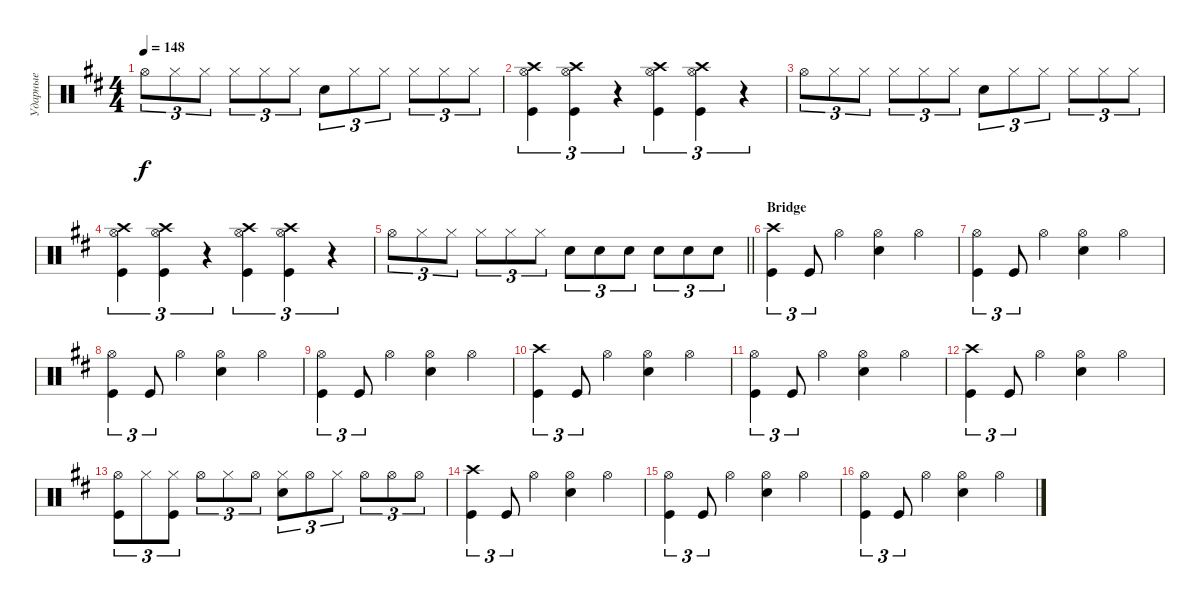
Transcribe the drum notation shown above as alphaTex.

\track ("Ударные" "Ударные") {instrument percussion}
\staff {score}
\articulation defaults
\ts (4 4)
\tempo 148
\clef neutral
\ks bminor "Hi-Hat (open)".8{tu (3 2) dy f} "Hi-Hat (closed)".8{tu (3 2)} "Hi-Hat (closed)".8{tu (3 2)} "Hi-Hat (closed)".8{tu (3 2)} "Hi-Hat (closed)".8{tu (3 2)} "Hi-Hat (closed)".8{tu (3 2)} "Snare (hit) 2".8{tu (3 2)} "Hi-Hat (closed)".8{tu (3 2)} "Hi-Hat (closed)".8{tu (3 2)} "Hi-Hat (closed)".8{tu (3 2)} "Hi-Hat (closed)".8{tu (3 2)} "Hi-Hat (closed)".8{tu (3 2)}
|
("Kick (hit)" "Crash high (hit)" "Hi-Hat (open)").4{tu (3 2)} ("Kick (hit)" "Crash high (hit)" "Hi-Hat (open)").4{tu (3 2)} r.4{tu (3 2)} ("Kick (hit)" "Crash high (hit)" "Hi-Hat (open)").4{tu (3 2)} ("Kick (hit)" "Crash high (hit)" "Hi-Hat (open)").4{tu (3 2)} r.4{tu (3 2)} |
"Hi-Hat (open)".8{tu (3 2)} "Hi-Hat (closed)".8{tu (3 2)} "Hi-Hat (closed)".8{tu (3 2)} "Hi-Hat (closed)".8{tu (3 2)} "Hi-Hat (closed)".8{tu (3 2)} "Hi-Hat (closed)".8{tu (3 2)} "Snare (hit) 2".8{tu (3 2)} "Hi-Hat (closed)".8{tu (3 2)} "Hi-Hat (closed)".8{tu (3 2)} "Hi-Hat (closed)".8{tu (3 2)} "Hi-Hat (closed)".8{tu (3 2)} "Hi-Hat (closed)".8{tu (3 2)} |
("Kick (hit)" "Crash high (hit)" "Hi-Hat (open)").4{tu (3 2)} ("Kick (hit)" "Crash high (hit)" "Hi-Hat (open)").4{tu (3 2)} r.4{tu (3 2)} ("Kick (hit)" "Crash high (hit)" "Hi-Hat (open)").4{tu (3 2)} ("Kick (hit)" "Crash high (hit)" "Hi-Hat (open)").4{tu (3 2)} r.4{tu (3 2)} |
\barLineRight lightlight "Hi-Hat (open)".8{tu (3 2)} "Hi-Hat (closed)".8{tu (3 2)} "Hi-Hat (closed)".8{tu (3 2)} "Hi-Hat (closed)".8{tu (3 2)} "Hi-Hat (closed)".8{tu (3 2)} "Hi-Hat (closed)".8{tu (3 2)} "Snare (hit) 2".8{tu (3 2)} "Snare (hit) 2".8{tu (3 2)} "Snare (hit) 2".8{tu (3 2)} "Snare (hit) 2".8{tu (3 2)} "Snare (hit) 2".8{tu (3 2)} "Snare (hit) 2".8{tu (3 2)}
|
\section ("" "Bridge")
("Kick (hit)" "Crash high (hit)").4{tu (3 2)} "Kick (hit)".8{tu (3 2)} "Hi-Hat (open)".4 ("Hi-Hat (open)" "Snare (hit) 2").4 "Hi-Hat (open)".4 |
("Hi-Hat (open)" "Kick (hit)").4{tu (3 2)} "Kick (hit)".8{tu (3 2)} "Hi-Hat (open)".4 ("Hi-Hat (open)" "Snare (hit) 2").4 "Hi-Hat (open)".4 |
("Hi-Hat (open)" "Kick (hit)").4{tu (3 2)} "Kick (hit)".8{tu (3 2)} "Hi-Hat (open)".4 ("Hi-Hat (open)" "Snare (hit) 2").4 "Hi-Hat (open)".4 |
("Hi-Hat (open)" "Kick (hit)").4{tu (3 2)} "Kick (hit)".8{tu (3 2)} "Hi-Hat (open)".4 ("Hi-Hat (open)" "Snare (hit) 2").4 "Hi-Hat (open)".4 |
("Kick (hit)" "Crash high (hit)").4{tu (3 2)} "Kick (hit)".8{tu (3 2)} "Hi-Hat (open)".4 ("Hi-Hat (open)" "Snare (hit) 2").4 "Hi-Hat (open)".4 |
("Hi-Hat (open)" "Kick (hit)").4{tu (3 2)} "Kick (hit)".8{tu (3 2)} "Hi-Hat (open)".4 ("Hi-Hat (open)" "Snare (hit) 2").4 "Hi-Hat (open)".4 |
("Kick (hit)" "Crash high (hit)").4{tu (3 2)} "Kick (hit)".8{tu (3 2)} "Hi-Hat (open)".4 ("Hi-Hat (open)" "Snare (hit) 2").4 "Hi-Hat (open)".4 |
("Hi-Hat (open)" "Kick (hit)").8{tu (3 2)} "Hi-Hat (closed)".8{tu (3 2)} ("Kick (hit)" "Hi-Hat (closed)").8{tu (3 2)} "Hi-Hat (open)".8{tu (3 2)} "Hi-Hat (closed)".8{tu (3 2)} "Hi-Hat (open)".8{tu (3 2)} ("Hi-Hat (closed)" "Snare (hit) 2").8{tu (3 2)} "Hi-Hat (open)".8{tu (3 2)} "Hi-Hat (closed)".8{tu (3 2)} "Hi-Hat (open)".8{tu (3 2)} "Hi-Hat (open)".8{tu (3 2)} "Hi-Hat (open)".8{tu (3 2)} |
("Kick (hit)" "Crash high (hit)").4{tu (3 2)} "Kick (hit)".8{tu (3 2)} "Hi-Hat (open)".4 ("Hi-Hat (open)" "Snare (hit) 2").4 "Hi-Hat (open)".4 |
("Hi-Hat (open)" "Kick (hit)").4{tu (3 2)} "Kick (hit)".8{tu (3 2)} "Hi-Hat (open)".4 ("Hi-Hat (open)" "Snare (hit) 2").4 "Hi-Hat (open)".4 |
("Hi-Hat (open)" "Kick (hit)").4{tu (3 2)} "Kick (hit)".8{tu (3 2)} "Hi-Hat (open)".4 ("Hi-Hat (open)" "Snare (hit) 2").4 "Hi-Hat (open)".4
